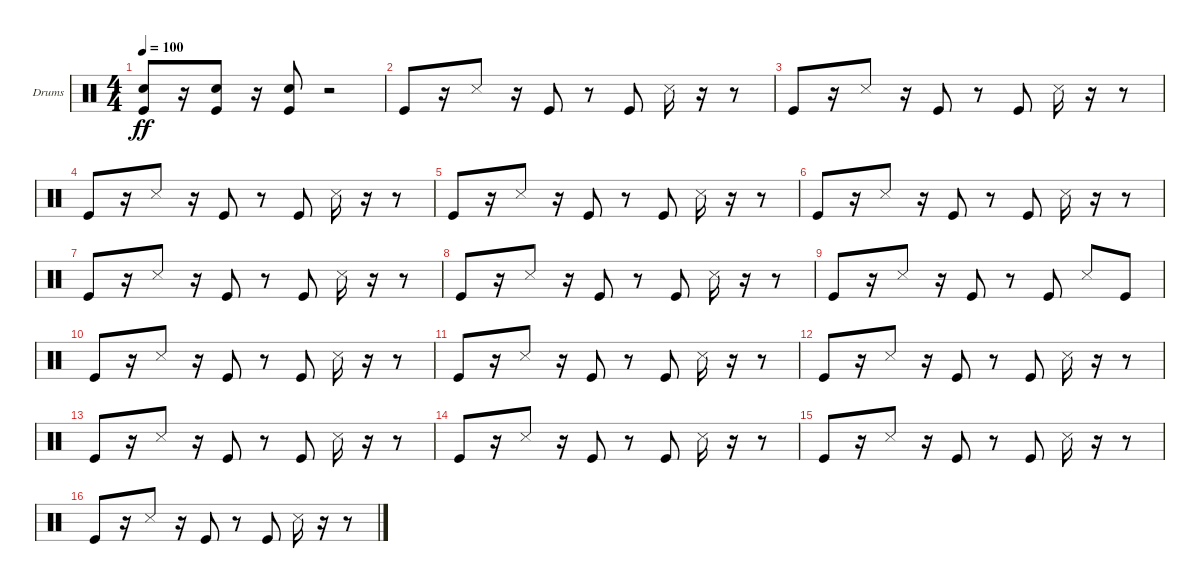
\defaultSystemsLayout 4
\bracketExtendMode groupsimilarinstruments
\firstSystemTrackNameOrientation horizontal
\otherSystemsTrackNameOrientation horizontal
\track ("Drumkit 1" "Drums") {instrument percussion}
\staff {score}
\articulation defaults
\ts (4 4)
\tempo 100
\clef neutral
\ks c
("Kick (hit)" "Snare (hit) 2").8{dy ff} r.16 ("Kick (hit)" "Snare (hit) 2").8 r.16 ("Kick (hit)" "Snare (hit) 2").8 r.2 |
"Kick (hit)".8 r.16 "Snare (side stick) 3".8 r.16 "Kick (hit)".8 r.8 "Kick (hit)".8 "Snare (side stick) 3".16 r.16 r.8 |
"Kick (hit)".8 r.16 "Snare (side stick) 3".8 r.16 "Kick (hit)".8 r.8 "Kick (hit)".8 "Snare (side stick) 3".16 r.16 r.8 |
"Kick (hit)".8 r.16 "Snare (side stick) 3".8 r.16 "Kick (hit)".8 r.8 "Kick (hit)".8 "Snare (side stick) 3".16 r.16 r.8 |
"Kick (hit)".8 r.16 "Snare (side stick) 3".8 r.16 "Kick (hit)".8 r.8 "Kick (hit)".8 "Snare (side stick) 3".16 r.16 r.8 |
"Kick (hit)".8 r.16 "Snare (side stick) 3".8 r.16 "Kick (hit)".8 r.8 "Kick (hit)".8 "Snare (side stick) 3".16 r.16 r.8 |
"Kick (hit)".8 r.16 "Snare (side stick) 3".8 r.16 "Kick (hit)".8 r.8 "Kick (hit)".8 "Snare (side stick) 3".16 r.16 r.8 |
"Kick (hit)".8 r.16 "Snare (side stick) 3".8 r.16 "Kick (hit)".8 r.8 "Kick (hit)".8 "Snare (side stick) 3".16 r.16 r.8 |
"Kick (hit)".8 r.16 "Snare (side stick) 3".8 r.16 "Kick (hit)".8 r.8 "Kick (hit)".8 "Snare (side stick) 3".8 "Kick (hit)".8 |
"Kick (hit)".8 r.16 "Snare (side stick) 3".8 r.16 "Kick (hit)".8 r.8 "Kick (hit)".8 "Snare (side stick) 3".16 r.16 r.8 |
"Kick (hit)".8 r.16 "Snare (side stick) 3".8 r.16 "Kick (hit)".8 r.8 "Kick (hit)".8 "Snare (side stick) 3".16 r.16 r.8 |
"Kick (hit)".8 r.16 "Snare (side stick) 3".8 r.16 "Kick (hit)".8 r.8 "Kick (hit)".8 "Snare (side stick) 3".16 r.16 r.8 |
"Kick (hit)".8 r.16 "Snare (side stick) 3".8 r.16 "Kick (hit)".8 r.8 "Kick (hit)".8 "Snare (side stick) 3".16 r.16 r.8 |
"Kick (hit)".8 r.16 "Snare (side stick) 3".8 r.16 "Kick (hit)".8 r.8 "Kick (hit)".8 "Snare (side stick) 3".16 r.16 r.8 |
"Kick (hit)".8 r.16 "Snare (side stick) 3".8 r.16 "Kick (hit)".8 r.8 "Kick (hit)".8 "Snare (side stick) 3".16 r.16 r.8 |
"Kick (hit)".8 r.16 "Snare (side stick) 3".8 r.16 "Kick (hit)".8 r.8 "Kick (hit)".8 "Snare (side stick) 3".16 r.16 r.8
